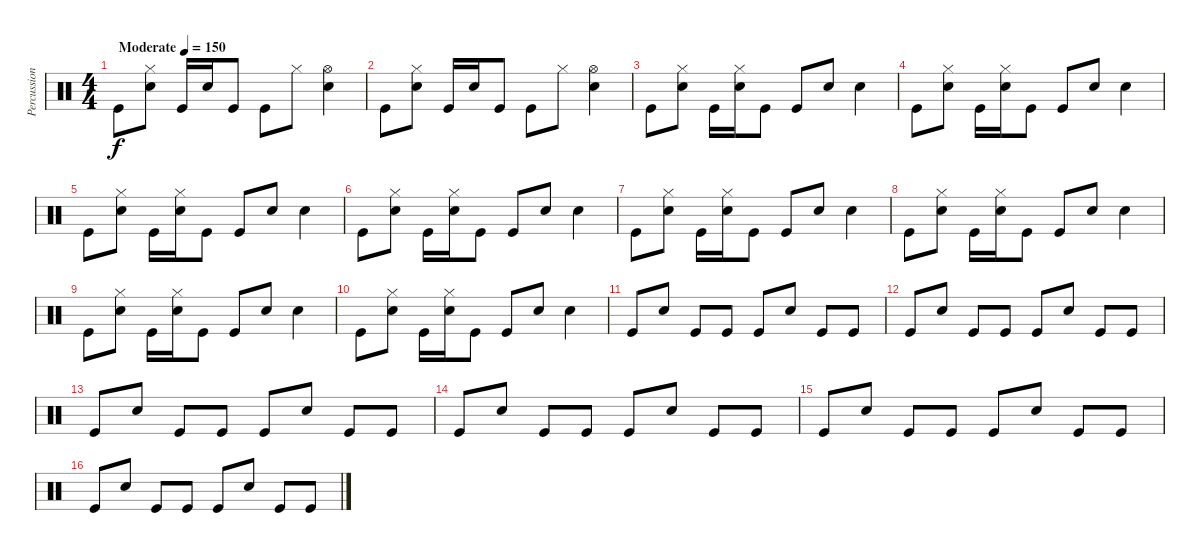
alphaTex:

\track ("Percussion" "Percussion") {instrument percussion}
\staff {score}
\articulation defaults
\ts (4 4)
\tempo (150 "Moderate")
\clef neutral
\ks c "Kick (hit)".8{dy f}
("Hi-Hat (closed)" "Electric Snare (hit)").8 "Kick (hit)".16 "Electric Snare (hit)".16 "Kick (hit)".8 "Kick (hit)".8 "Hi-Hat (closed)".8 ("Hi-Hat (open)" "Electric Snare (hit)").4 |
"Kick (hit)".8 ("Hi-Hat (closed)" "Electric Snare (hit)").8 "Kick (hit)".16 "Electric Snare (hit)".16 "Kick (hit)".8 "Kick (hit)".8 "Hi-Hat (closed)".8 ("Hi-Hat (open)" "Electric Snare (hit)").4 |
"Kick (hit)".8 ("Hi-Hat (closed)" "Electric Snare (hit)").8 "Kick (hit)".16 ("Hi-Hat (closed)" "Electric Snare (hit)").16 "Kick (hit)".8 "Kick (hit)".8 "Electric Snare (hit)".8 "Electric Snare (hit)".4 |
"Kick (hit)".8 ("Hi-Hat (closed)" "Electric Snare (hit)").8 "Kick (hit)".16 ("Hi-Hat (closed)" "Electric Snare (hit)").16 "Kick (hit)".8 "Kick (hit)".8 "Electric Snare (hit)".8 "Electric Snare (hit)".4 |
"Kick (hit)".8 ("Hi-Hat (closed)" "Electric Snare (hit)").8 "Kick (hit)".16 ("Hi-Hat (closed)" "Electric Snare (hit)").16 "Kick (hit)".8 "Kick (hit)".8 "Electric Snare (hit)".8 "Electric Snare (hit)".4 |
"Kick (hit)".8 ("Hi-Hat (closed)" "Electric Snare (hit)").8 "Kick (hit)".16 ("Hi-Hat (closed)" "Electric Snare (hit)").16 "Kick (hit)".8 "Kick (hit)".8 "Electric Snare (hit)".8 "Electric Snare (hit)".4 |
"Kick (hit)".8 ("Hi-Hat (closed)" "Electric Snare (hit)").8 "Kick (hit)".16 ("Hi-Hat (closed)" "Electric Snare (hit)").16 "Kick (hit)".8 "Kick (hit)".8 "Electric Snare (hit)".8 "Electric Snare (hit)".4 |
"Kick (hit)".8 ("Hi-Hat (closed)" "Electric Snare (hit)").8 "Kick (hit)".16 ("Hi-Hat (closed)" "Electric Snare (hit)").16 "Kick (hit)".8 "Kick (hit)".8 "Electric Snare (hit)".8 "Electric Snare (hit)".4 |
"Kick (hit)".8 ("Hi-Hat (closed)" "Electric Snare (hit)").8 "Kick (hit)".16 ("Hi-Hat (closed)" "Electric Snare (hit)").16 "Kick (hit)".8 "Kick (hit)".8 "Electric Snare (hit)".8 "Electric Snare (hit)".4 |
"Kick (hit)".8 ("Hi-Hat (closed)" "Electric Snare (hit)").8 "Kick (hit)".16 ("Hi-Hat (closed)" "Electric Snare (hit)").16 "Kick (hit)".8 "Kick (hit)".8 "Electric Snare (hit)".8 "Electric Snare (hit)".4 |
"Kick (hit)".8 "Electric Snare (hit)".8 "Kick (hit)".8 "Kick (hit)".8 "Kick (hit)".8 "Electric Snare (hit)".8 "Kick (hit)".8 "Kick (hit)".8 |
"Kick (hit)".8 "Electric Snare (hit)".8 "Kick (hit)".8 "Kick (hit)".8 "Kick (hit)".8 "Electric Snare (hit)".8 "Kick (hit)".8 "Kick (hit)".8 |
"Kick (hit)".8 "Electric Snare (hit)".8 "Kick (hit)".8 "Kick (hit)".8 "Kick (hit)".8 "Electric Snare (hit)".8 "Kick (hit)".8 "Kick (hit)".8 |
"Kick (hit)".8 "Electric Snare (hit)".8 "Kick (hit)".8 "Kick (hit)".8 "Kick (hit)".8 "Electric Snare (hit)".8 "Kick (hit)".8 "Kick (hit)".8 |
"Kick (hit)".8 "Electric Snare (hit)".8 "Kick (hit)".8 "Kick (hit)".8 "Kick (hit)".8 "Electric Snare (hit)".8 "Kick (hit)".8 "Kick (hit)".8 |
"Kick (hit)".8 "Electric Snare (hit)".8 "Kick (hit)".8 "Kick (hit)".8 "Kick (hit)".8 "Electric Snare (hit)".8 "Kick (hit)".8 "Kick (hit)".8
